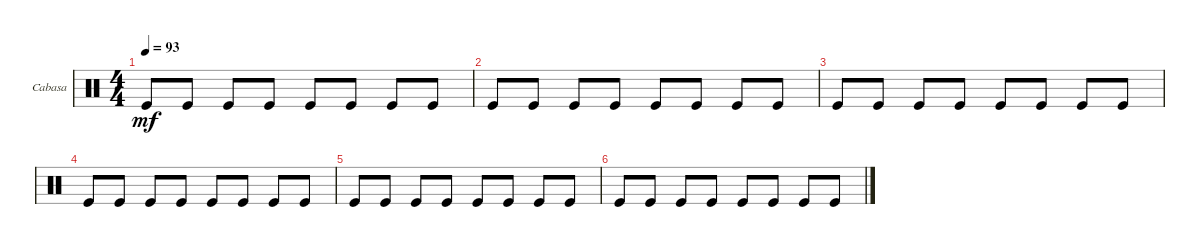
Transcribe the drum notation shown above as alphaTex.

\defaultSystemsLayout 4
\bracketExtendMode groupsimilarinstruments
\firstSystemTrackNameOrientation horizontal
\otherSystemsTrackNameOrientation horizontal
\track ("Cabasa" "Cabasa") {instrument percussion}
\staff {score}
\articulation defaults
\ts (4 4)
\tempo 93
\clef neutral
\ks c "Kick (hit)".8{dy mf} "Kick (hit)".8 "Kick (hit)".8 "Kick (hit)".8 "Kick (hit)".8 "Kick (hit)".8 "Kick (hit)".8 "Kick (hit)".8
|
"Kick (hit)".8 "Kick (hit)".8 "Kick (hit)".8 "Kick (hit)".8 "Kick (hit)".8 "Kick (hit)".8 "Kick (hit)".8 "Kick (hit)".8 |
"Kick (hit)".8 "Kick (hit)".8 "Kick (hit)".8 "Kick (hit)".8 "Kick (hit)".8 "Kick (hit)".8 "Kick (hit)".8 "Kick (hit)".8 |
"Kick (hit)".8 "Kick (hit)".8 "Kick (hit)".8 "Kick (hit)".8 "Kick (hit)".8 "Kick (hit)".8 "Kick (hit)".8 "Kick (hit)".8 |
"Kick (hit)".8 "Kick (hit)".8 "Kick (hit)".8 "Kick (hit)".8 "Kick (hit)".8 "Kick (hit)".8 "Kick (hit)".8 "Kick (hit)".8 |
"Kick (hit)".8 "Kick (hit)".8 "Kick (hit)".8 "Kick (hit)".8 "Kick (hit)".8 "Kick (hit)".8 "Kick (hit)".8 "Kick (hit)".8
